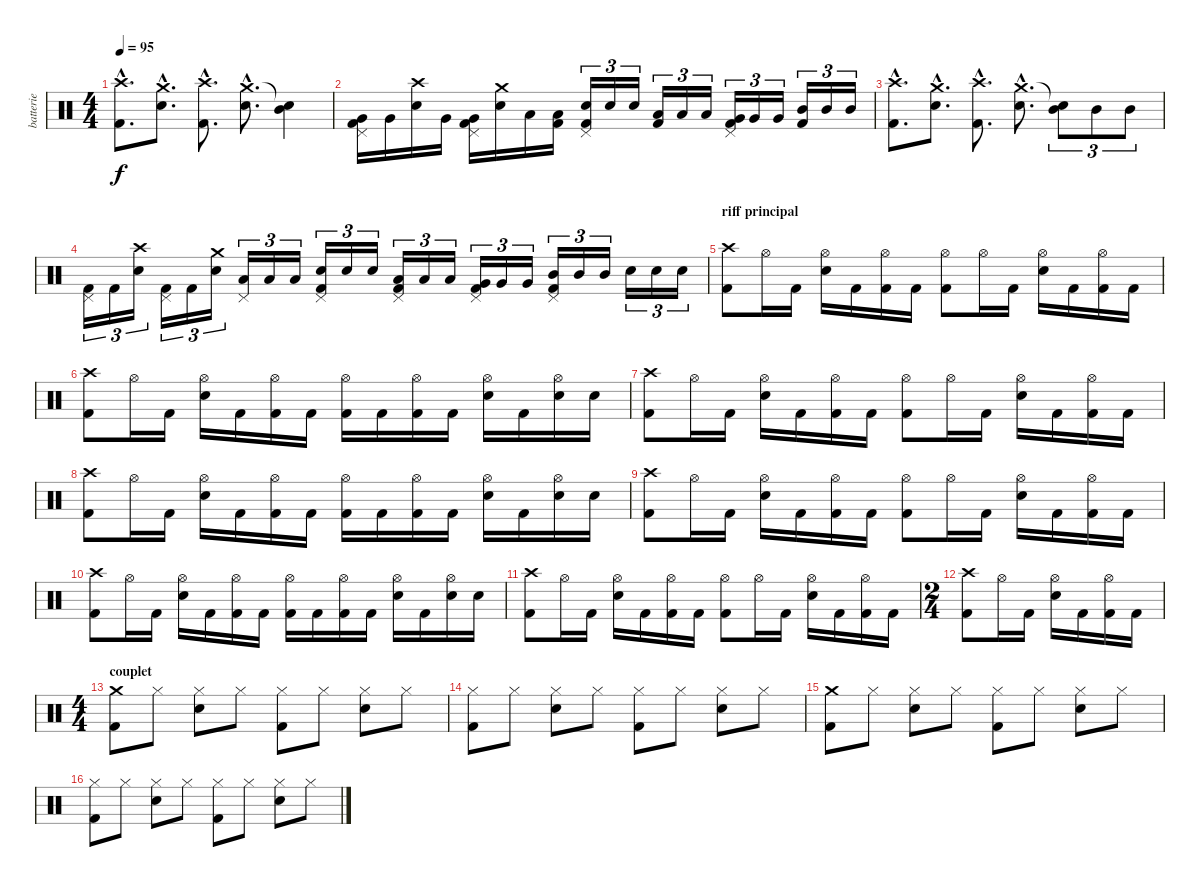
\track ("batterie" "batterie") {instrument percussion}
\staff {score}
\articulation defaults
\ts (4 4)
\tempo 95
\clef neutral
\ks c
("Crash high (hit)"{hac} "Kick (hit) 2"{hac}).8{d dy f} ("Crash medium (hit)"{hac} "Electric Snare (hit)"{hac}).8{d} ("Crash high (hit)"{hac} "Kick (hit) 2"{hac}).8{d} ("Crash medium (hit)"{hac} "Electric Snare (hit)"{hac}).8{d} ("Snare (hit)"{t} "Mid Tom (hit)").4 |
("Very Low Tom (hit)" "Kick (hit) 2" "Pedal Hi-Hat (hit)").16 "Very Low Tom (hit)".16 ("Crash high (hit)" "Electric Snare (hit)").16 "Very Low Tom (hit)".16 ("Very Low Tom (hit)" "Kick (hit) 2" "Pedal Hi-Hat (hit)").16 ("Crash medium (hit)" "Electric Snare (hit)").16 "Low Tom (hit)".16 ("Low Tom (hit)" "Kick (hit) 2").16 ("Electric Snare (hit)" "Kick (hit) 2" "Pedal Hi-Hat (hit)").16{tu (3 2)} "Electric Snare (hit)".16{tu (3 2)} "Electric Snare (hit)".16{tu (3 2)} ("Low Tom (hit)" "Kick (hit) 2").16{tu (3 2)} "Low Tom (hit)".16{tu (3 2)} "Low Tom (hit)".16{tu (3 2)} ("Very Low Tom (hit)" "Kick (hit) 2" "Pedal Hi-Hat (hit)").16{tu (3 2)} "Very Low Tom (hit)".16{tu (3 2)} "Very Low Tom (hit)".16{tu (3 2)} ("Mid Tom (hit)" "Kick (hit) 2").16{tu (3 2)} "Mid Tom (hit)".16{tu (3 2)} "Mid Tom (hit)".16{tu (3 2)} |
("Crash high (hit)"{hac} "Kick (hit) 2"{hac}).8{d} ("Crash medium (hit)"{hac} "Electric Snare (hit)"{hac}).8{d} ("Crash high (hit)"{hac} "Kick (hit) 2"{hac}).8{d} ("Crash medium (hit)"{hac} "Electric Snare (hit)"{hac}).8{d} ("Snare (hit)"{t} "Mid Tom (hit)").8{tu (3 2)} "Mid Tom (hit)".8{tu (3 2)} "Mid Tom (hit)".8{tu (3 2)} |
("Kick (hit) 2" "Pedal Hi-Hat (hit)").16{tu (3 2)} "Kick (hit) 2".16{tu (3 2)} ("Crash high (hit)" "Electric Snare (hit)").16{tu (3 2)} ("Kick (hit) 2" "Pedal Hi-Hat (hit)").16{tu (3 2)} "Kick (hit) 2".16{tu (3 2)} ("Crash medium (hit)" "Electric Snare (hit)").16{tu (3 2)} ("Low Tom (hit)" "Pedal Hi-Hat (hit)").16{tu (3 2)} "Low Tom (hit)".16{tu (3 2)} "Low Tom (hit)".16{tu (3 2)} ("Electric Snare (hit)" "Kick (hit) 2" "Pedal Hi-Hat (hit)").16{tu (3 2)} "Electric Snare (hit)".16{tu (3 2)} "Electric Snare (hit)".16{tu (3 2)} ("Low Tom (hit)" "Kick (hit) 2" "Pedal Hi-Hat (hit)").16{tu (3 2)} "Low Tom (hit)".16{tu (3 2)} "Low Tom (hit)".16{tu (3 2)} ("Very Low Tom (hit)" "Kick (hit) 2" "Pedal Hi-Hat (hit)").16{tu (3 2)} "Very Low Tom (hit)".16{tu (3 2)} "Very Low Tom (hit)".16{tu (3 2)} ("Mid Tom (hit)" "Kick (hit) 2" "Pedal Hi-Hat (hit)").16{tu (3 2)} "Mid Tom (hit)".16{tu (3 2)} "Mid Tom (hit)".16{tu (3 2)} "Electric Snare (hit)".16{tu (3 2)} "Electric Snare (hit)".16{tu (3 2)} "Electric Snare (hit)".16{tu (3 2)} |
\section ("" "riff principal")
("Crash high (hit)" "Kick (hit) 2").8 "Hi-Hat (open)".16 "Kick (hit) 2".16 ("Electric Snare (hit)" "Hi-Hat (open)").16 "Kick (hit) 2".16 ("Kick (hit) 2" "Hi-Hat (open)").16 "Kick (hit) 2".16 ("Kick (hit) 2" "Hi-Hat (open)").8 "Hi-Hat (open)".16 "Kick (hit) 2".16 ("Electric Snare (hit)" "Hi-Hat (open)").16 "Kick (hit) 2".16 ("Kick (hit) 2" "Hi-Hat (open)").16 "Kick (hit) 2".16 |
("Crash high (hit)" "Kick (hit) 2").8 "Hi-Hat (open)".16 "Kick (hit) 2".16 ("Electric Snare (hit)" "Hi-Hat (open)").16 "Kick (hit) 2".16 ("Kick (hit) 2" "Hi-Hat (open)").16 "Kick (hit) 2".16 ("Kick (hit) 2" "Hi-Hat (open)").16 "Kick (hit) 2".16 ("Kick (hit) 2" "Hi-Hat (open)").16 "Kick (hit) 2".16 ("Electric Snare (hit)" "Hi-Hat (open)").16 "Kick (hit) 2".16 ("Electric Snare (hit)" "Hi-Hat (open)").16 "Electric Snare (hit)".16 |
("Crash high (hit)" "Kick (hit) 2").8 "Hi-Hat (open)".16 "Kick (hit) 2".16 ("Electric Snare (hit)" "Hi-Hat (open)").16 "Kick (hit) 2".16 ("Kick (hit) 2" "Hi-Hat (open)").16 "Kick (hit) 2".16 ("Kick (hit) 2" "Hi-Hat (open)").8 "Hi-Hat (open)".16 "Kick (hit) 2".16 ("Electric Snare (hit)" "Hi-Hat (open)").16 "Kick (hit) 2".16 ("Kick (hit) 2" "Hi-Hat (open)").16 "Kick (hit) 2".16 |
("Crash high (hit)" "Kick (hit) 2").8 "Hi-Hat (open)".16 "Kick (hit) 2".16 ("Electric Snare (hit)" "Hi-Hat (open)").16 "Kick (hit) 2".16 ("Kick (hit) 2" "Hi-Hat (open)").16 "Kick (hit) 2".16 ("Kick (hit) 2" "Hi-Hat (open)").16 "Kick (hit) 2".16 ("Kick (hit) 2" "Hi-Hat (open)").16 "Kick (hit) 2".16 ("Electric Snare (hit)" "Hi-Hat (open)").16 "Kick (hit) 2".16 ("Electric Snare (hit)" "Hi-Hat (open)").16 "Electric Snare (hit)".16 |
("Crash high (hit)" "Kick (hit) 2").8 "Hi-Hat (open)".16 "Kick (hit) 2".16 ("Electric Snare (hit)" "Hi-Hat (open)").16 "Kick (hit) 2".16 ("Kick (hit) 2" "Hi-Hat (open)").16 "Kick (hit) 2".16 ("Kick (hit) 2" "Hi-Hat (open)").8 "Hi-Hat (open)".16 "Kick (hit) 2".16 ("Electric Snare (hit)" "Hi-Hat (open)").16 "Kick (hit) 2".16 ("Kick (hit) 2" "Hi-Hat (open)").16 "Kick (hit) 2".16 |
("Crash high (hit)" "Kick (hit) 2").8 "Hi-Hat (open)".16 "Kick (hit) 2".16 ("Electric Snare (hit)" "Hi-Hat (open)").16 "Kick (hit) 2".16 ("Kick (hit) 2" "Hi-Hat (open)").16 "Kick (hit) 2".16 ("Kick (hit) 2" "Hi-Hat (open)").16 "Kick (hit) 2".16 ("Kick (hit) 2" "Hi-Hat (open)").16 "Kick (hit) 2".16 ("Electric Snare (hit)" "Hi-Hat (open)").16 "Kick (hit) 2".16 ("Electric Snare (hit)" "Hi-Hat (open)").16 "Electric Snare (hit)".16 |
("Crash high (hit)" "Kick (hit) 2").8 "Hi-Hat (open)".16 "Kick (hit) 2".16 ("Electric Snare (hit)" "Hi-Hat (open)").16 "Kick (hit) 2".16 ("Kick (hit) 2" "Hi-Hat (open)").16 "Kick (hit) 2".16 ("Kick (hit) 2" "Hi-Hat (open)").8 "Hi-Hat (open)".16 "Kick (hit) 2".16 ("Electric Snare (hit)" "Hi-Hat (open)").16 "Kick (hit) 2".16 ("Kick (hit) 2" "Hi-Hat (open)").16 "Kick (hit) 2".16 |
\ts (2 4)
("Crash high (hit)" "Kick (hit) 2").8 "Hi-Hat (open)".16 "Kick (hit) 2".16 ("Electric Snare (hit)" "Hi-Hat (open)").16 "Kick (hit) 2".16 ("Kick (hit) 2" "Hi-Hat (open)").16 "Kick (hit) 2".16 |
\ts (4 4)
\section ("" "couplet")
("Crash medium (hit)" "Kick (hit) 2").8 "Hi-Hat (closed)".8 ("Electric Snare (hit)" "Hi-Hat (closed)").8 "Hi-Hat (closed)".8 ("Kick (hit) 2" "Hi-Hat (closed)").8 "Hi-Hat (closed)".8 ("Electric Snare (hit)" "Hi-Hat (closed)").8 "Hi-Hat (closed)".8 |
("Kick (hit) 2" "Hi-Hat (closed)").8 "Hi-Hat (closed)".8 ("Electric Snare (hit)" "Hi-Hat (closed)").8 "Hi-Hat (closed)".8 ("Kick (hit) 2" "Hi-Hat (closed)").8 "Hi-Hat (closed)".8 ("Electric Snare (hit)" "Hi-Hat (closed)").8 "Hi-Hat (closed)".8 |
("Crash medium (hit)" "Kick (hit) 2").8 "Hi-Hat (closed)".8 ("Electric Snare (hit)" "Hi-Hat (closed)").8 "Hi-Hat (closed)".8 ("Kick (hit) 2" "Hi-Hat (closed)").8 "Hi-Hat (closed)".8 ("Electric Snare (hit)" "Hi-Hat (closed)").8 "Hi-Hat (closed)".8 |
("Kick (hit) 2" "Hi-Hat (closed)").8 "Hi-Hat (closed)".8 ("Electric Snare (hit)" "Hi-Hat (closed)").8 "Hi-Hat (closed)".8 ("Kick (hit) 2" "Hi-Hat (closed)").8 "Hi-Hat (closed)".8 ("Electric Snare (hit)" "Hi-Hat (closed)").8 "Hi-Hat (closed)".8
